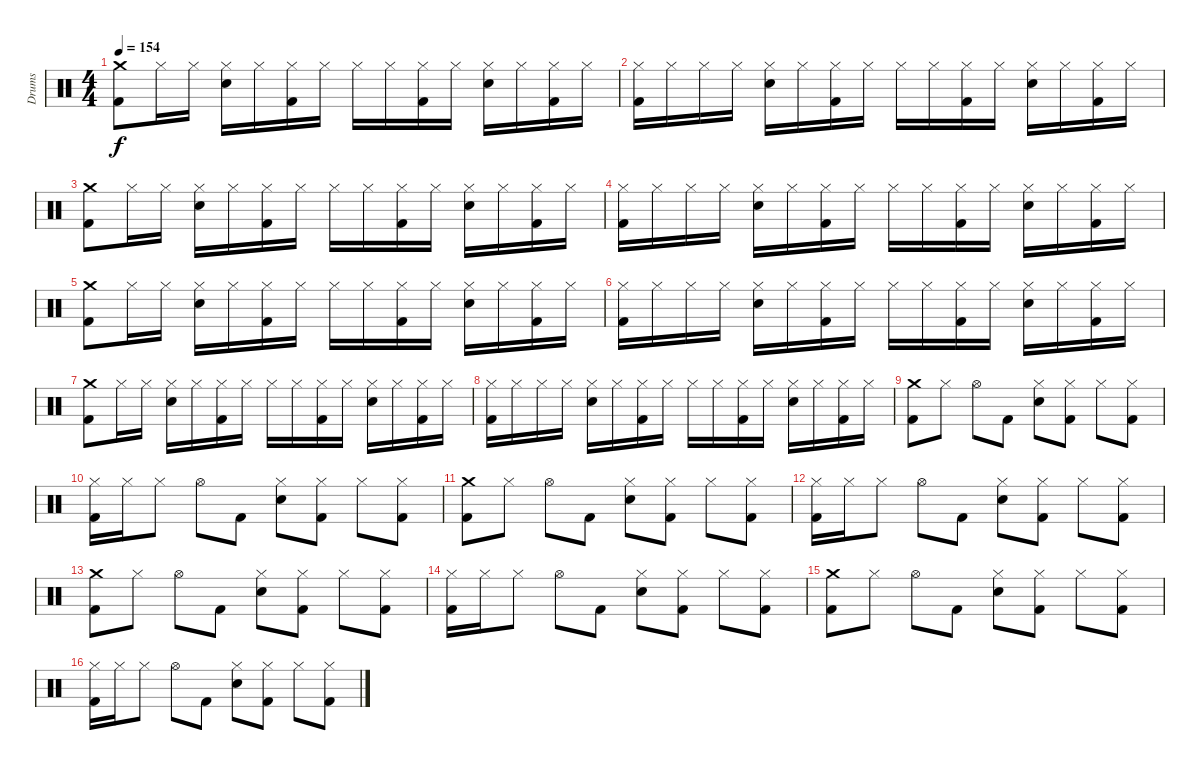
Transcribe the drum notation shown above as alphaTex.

\track ("Drums" "Drums") {instrument percussion}
\staff {score}
\articulation defaults
\ts (4 4)
\tempo 154
\clef neutral
\ks c
("Crash medium (hit)" "Kick (hit) 2").8{dy f} "Hi-Hat (closed)".16 "Hi-Hat (closed)".16 ("Electric Snare (hit)" "Hi-Hat (closed)").16 "Hi-Hat (closed)".16 ("Kick (hit) 2" "Hi-Hat (closed)").16 "Hi-Hat (closed)".16 "Hi-Hat (closed)".16 "Hi-Hat (closed)".16 ("Kick (hit) 2" "Hi-Hat (closed)").16 "Hi-Hat (closed)".16 ("Electric Snare (hit)" "Hi-Hat (closed)").16 "Hi-Hat (closed)".16 ("Kick (hit) 2" "Hi-Hat (closed)").16 "Hi-Hat (closed)".16 |
("Hi-Hat (closed)" "Kick (hit) 2").16 "Hi-Hat (closed)".16 "Hi-Hat (closed)".16 "Hi-Hat (closed)".16 ("Electric Snare (hit)" "Hi-Hat (closed)").16 "Hi-Hat (closed)".16 ("Kick (hit) 2" "Hi-Hat (closed)").16 "Hi-Hat (closed)".16 "Hi-Hat (closed)".16 "Hi-Hat (closed)".16 ("Kick (hit) 2" "Hi-Hat (closed)").16 "Hi-Hat (closed)".16 ("Electric Snare (hit)" "Hi-Hat (closed)").16 "Hi-Hat (closed)".16 ("Kick (hit) 2" "Hi-Hat (closed)").16 "Hi-Hat (closed)".16 |
("Crash medium (hit)" "Kick (hit) 2").8 "Hi-Hat (closed)".16 "Hi-Hat (closed)".16 ("Electric Snare (hit)" "Hi-Hat (closed)").16 "Hi-Hat (closed)".16 ("Kick (hit) 2" "Hi-Hat (closed)").16 "Hi-Hat (closed)".16 "Hi-Hat (closed)".16 "Hi-Hat (closed)".16 ("Kick (hit) 2" "Hi-Hat (closed)").16 "Hi-Hat (closed)".16 ("Electric Snare (hit)" "Hi-Hat (closed)").16 "Hi-Hat (closed)".16 ("Kick (hit) 2" "Hi-Hat (closed)").16 "Hi-Hat (closed)".16 |
("Hi-Hat (closed)" "Kick (hit) 2").16 "Hi-Hat (closed)".16 "Hi-Hat (closed)".16 "Hi-Hat (closed)".16 ("Electric Snare (hit)" "Hi-Hat (closed)").16 "Hi-Hat (closed)".16 ("Kick (hit) 2" "Hi-Hat (closed)").16 "Hi-Hat (closed)".16 "Hi-Hat (closed)".16 "Hi-Hat (closed)".16 ("Kick (hit) 2" "Hi-Hat (closed)").16 "Hi-Hat (closed)".16 ("Electric Snare (hit)" "Hi-Hat (closed)").16 "Hi-Hat (closed)".16 ("Kick (hit) 2" "Hi-Hat (closed)").16 "Hi-Hat (closed)".16 |
("Crash medium (hit)" "Kick (hit) 2").8 "Hi-Hat (closed)".16 "Hi-Hat (closed)".16 ("Electric Snare (hit)" "Hi-Hat (closed)").16 "Hi-Hat (closed)".16 ("Kick (hit) 2" "Hi-Hat (closed)").16 "Hi-Hat (closed)".16 "Hi-Hat (closed)".16 "Hi-Hat (closed)".16 ("Kick (hit) 2" "Hi-Hat (closed)").16 "Hi-Hat (closed)".16 ("Electric Snare (hit)" "Hi-Hat (closed)").16 "Hi-Hat (closed)".16 ("Kick (hit) 2" "Hi-Hat (closed)").16 "Hi-Hat (closed)".16 |
("Hi-Hat (closed)" "Kick (hit) 2").16 "Hi-Hat (closed)".16 "Hi-Hat (closed)".16 "Hi-Hat (closed)".16 ("Electric Snare (hit)" "Hi-Hat (closed)").16 "Hi-Hat (closed)".16 ("Kick (hit) 2" "Hi-Hat (closed)").16 "Hi-Hat (closed)".16 "Hi-Hat (closed)".16 "Hi-Hat (closed)".16 ("Kick (hit) 2" "Hi-Hat (closed)").16 "Hi-Hat (closed)".16 ("Electric Snare (hit)" "Hi-Hat (closed)").16 "Hi-Hat (closed)".16 ("Kick (hit) 2" "Hi-Hat (closed)").16 "Hi-Hat (closed)".16 |
("Crash medium (hit)" "Kick (hit) 2").8 "Hi-Hat (closed)".16 "Hi-Hat (closed)".16 ("Electric Snare (hit)" "Hi-Hat (closed)").16 "Hi-Hat (closed)".16 ("Kick (hit) 2" "Hi-Hat (closed)").16 "Hi-Hat (closed)".16 "Hi-Hat (closed)".16 "Hi-Hat (closed)".16 ("Kick (hit) 2" "Hi-Hat (closed)").16 "Hi-Hat (closed)".16 ("Electric Snare (hit)" "Hi-Hat (closed)").16 "Hi-Hat (closed)".16 ("Kick (hit) 2" "Hi-Hat (closed)").16 "Hi-Hat (closed)".16 |
("Hi-Hat (closed)" "Kick (hit) 2").16 "Hi-Hat (closed)".16 "Hi-Hat (closed)".16 "Hi-Hat (closed)".16 ("Electric Snare (hit)" "Hi-Hat (closed)").16 "Hi-Hat (closed)".16 ("Kick (hit) 2" "Hi-Hat (closed)").16 "Hi-Hat (closed)".16 "Hi-Hat (closed)".16 "Hi-Hat (closed)".16 ("Kick (hit) 2" "Hi-Hat (closed)").16 "Hi-Hat (closed)".16 ("Electric Snare (hit)" "Hi-Hat (closed)").16 "Hi-Hat (closed)".16 ("Kick (hit) 2" "Hi-Hat (closed)").16 "Hi-Hat (closed)".16 |
("Crash medium (hit)" "Kick (hit) 2").8 "Hi-Hat (closed)".8 "Hi-Hat (open)".8 "Kick (hit) 2".8 ("Hi-Hat (closed)" "Electric Snare (hit)").8 ("Hi-Hat (closed)" "Kick (hit) 2").8 "Hi-Hat (closed)".8 ("Hi-Hat (closed)" "Kick (hit) 2").8 |
("Hi-Hat (closed)" "Kick (hit) 2").16 "Hi-Hat (closed)".16 "Hi-Hat (closed)".8 "Hi-Hat (open)".8 "Kick (hit) 2".8 ("Hi-Hat (closed)" "Electric Snare (hit)").8 ("Hi-Hat (closed)" "Kick (hit) 2").8 "Hi-Hat (closed)".8 ("Hi-Hat (closed)" "Kick (hit) 2").8 |
("Crash medium (hit)" "Kick (hit) 2").8 "Hi-Hat (closed)".8 "Hi-Hat (open)".8 "Kick (hit) 2".8 ("Hi-Hat (closed)" "Electric Snare (hit)").8 ("Hi-Hat (closed)" "Kick (hit) 2").8 "Hi-Hat (closed)".8 ("Hi-Hat (closed)" "Kick (hit) 2").8 |
("Hi-Hat (closed)" "Kick (hit) 2").16 "Hi-Hat (closed)".16 "Hi-Hat (closed)".8 "Hi-Hat (open)".8 "Kick (hit) 2".8 ("Hi-Hat (closed)" "Electric Snare (hit)").8 ("Hi-Hat (closed)" "Kick (hit) 2").8 "Hi-Hat (closed)".8 ("Hi-Hat (closed)" "Kick (hit) 2").8 |
("Crash medium (hit)" "Kick (hit) 2").8 "Hi-Hat (closed)".8 "Hi-Hat (open)".8 "Kick (hit) 2".8 ("Hi-Hat (closed)" "Electric Snare (hit)").8 ("Hi-Hat (closed)" "Kick (hit) 2").8 "Hi-Hat (closed)".8 ("Hi-Hat (closed)" "Kick (hit) 2").8 |
("Hi-Hat (closed)" "Kick (hit) 2").16 "Hi-Hat (closed)".16 "Hi-Hat (closed)".8 "Hi-Hat (open)".8 "Kick (hit) 2".8 ("Hi-Hat (closed)" "Electric Snare (hit)").8 ("Hi-Hat (closed)" "Kick (hit) 2").8 "Hi-Hat (closed)".8 ("Hi-Hat (closed)" "Kick (hit) 2").8 |
("Crash medium (hit)" "Kick (hit) 2").8 "Hi-Hat (closed)".8 "Hi-Hat (open)".8 "Kick (hit) 2".8 ("Hi-Hat (closed)" "Electric Snare (hit)").8 ("Hi-Hat (closed)" "Kick (hit) 2").8 "Hi-Hat (closed)".8 ("Hi-Hat (closed)" "Kick (hit) 2").8 |
("Hi-Hat (closed)" "Kick (hit) 2").16 "Hi-Hat (closed)".16 "Hi-Hat (closed)".8 "Hi-Hat (open)".8 "Kick (hit) 2".8 ("Hi-Hat (closed)" "Electric Snare (hit)").8 ("Hi-Hat (closed)" "Kick (hit) 2").8 "Hi-Hat (closed)".8 ("Hi-Hat (closed)" "Kick (hit) 2").8
